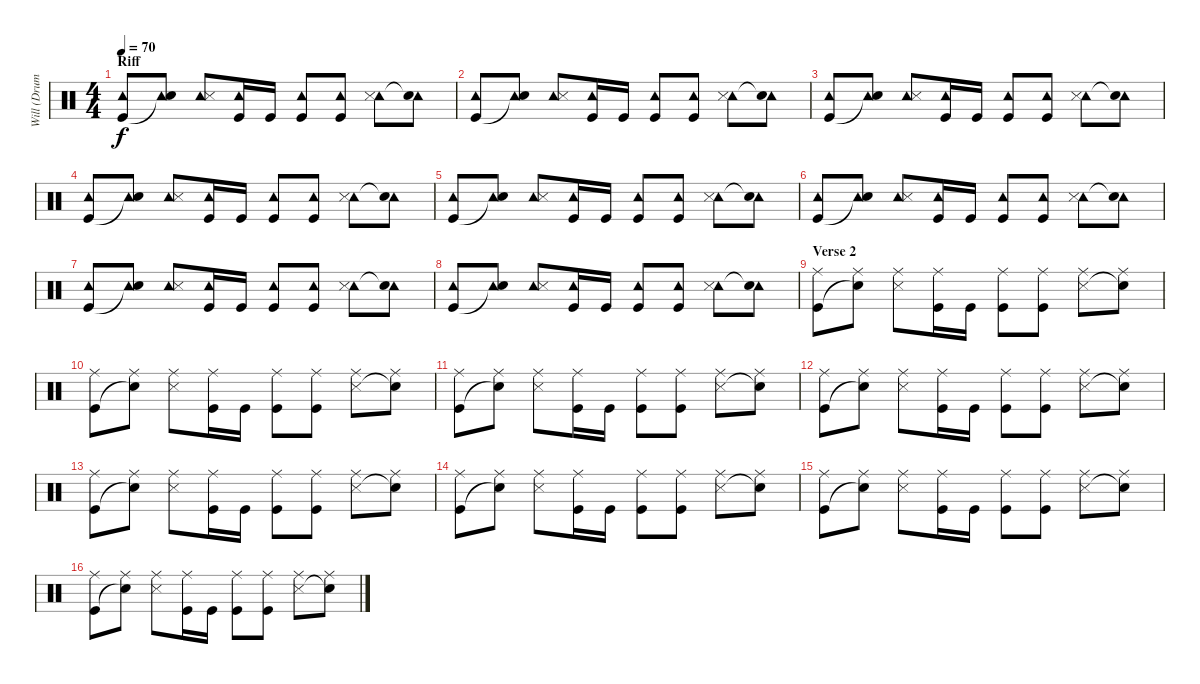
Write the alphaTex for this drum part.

\track ("Will (Drums)" "Will (Drum") {instrument percussion}
\staff {score}
\articulation defaults
\ts (4 4)
\section ("" "Riff")
\tempo 70
\clef neutral
\ks c
("Tambourine (hit)" "Kick (hit)").8{dy f} ("Tambourine (hit)" "Snare (hit)"{t}).8 ("Tambourine (hit)" "Snare (side stick) 3").8 ("Tambourine (hit)" "Kick (hit)").16 "Kick (hit)".16 ("Tambourine (hit)" "Kick (hit)").8 ("Tambourine (hit)" "Kick (hit)").8 ("Tambourine (hit)" "Snare (side stick) 3").8 ("Tambourine (hit)" "Snare (hit)"{t}).8 |
("Tambourine (hit)" "Kick (hit)").8 ("Tambourine (hit)" "Snare (hit)"{t}).8 ("Tambourine (hit)" "Snare (side stick) 3").8 ("Tambourine (hit)" "Kick (hit)").16 "Kick (hit)".16 ("Tambourine (hit)" "Kick (hit)").8 ("Tambourine (hit)" "Kick (hit)").8 ("Tambourine (hit)" "Snare (side stick) 3").8 ("Tambourine (hit)" "Snare (hit)"{t}).8 |
("Tambourine (hit)" "Kick (hit)").8 ("Tambourine (hit)" "Snare (hit)"{t}).8 ("Tambourine (hit)" "Snare (side stick) 3").8 ("Tambourine (hit)" "Kick (hit)").16 "Kick (hit)".16 ("Tambourine (hit)" "Kick (hit)").8 ("Tambourine (hit)" "Kick (hit)").8 ("Tambourine (hit)" "Snare (side stick) 3").8 ("Tambourine (hit)" "Snare (hit)"{t}).8 |
("Tambourine (hit)" "Kick (hit)").8 ("Tambourine (hit)" "Snare (hit)"{t}).8 ("Tambourine (hit)" "Snare (side stick) 3").8 ("Tambourine (hit)" "Kick (hit)").16 "Kick (hit)".16 ("Tambourine (hit)" "Kick (hit)").8 ("Tambourine (hit)" "Kick (hit)").8 ("Tambourine (hit)" "Snare (side stick) 3").8 ("Tambourine (hit)" "Snare (hit)"{t}).8 |
("Tambourine (hit)" "Kick (hit)").8 ("Tambourine (hit)" "Snare (hit)"{t}).8 ("Tambourine (hit)" "Snare (side stick) 3").8 ("Tambourine (hit)" "Kick (hit)").16 "Kick (hit)".16 ("Tambourine (hit)" "Kick (hit)").8 ("Tambourine (hit)" "Kick (hit)").8 ("Tambourine (hit)" "Snare (side stick) 3").8 ("Tambourine (hit)" "Snare (hit)"{t}).8 |
("Tambourine (hit)" "Kick (hit)").8 ("Tambourine (hit)" "Snare (hit)"{t}).8 ("Tambourine (hit)" "Snare (side stick) 3").8 ("Tambourine (hit)" "Kick (hit)").16 "Kick (hit)".16 ("Tambourine (hit)" "Kick (hit)").8 ("Tambourine (hit)" "Kick (hit)").8 ("Tambourine (hit)" "Snare (side stick) 3").8 ("Tambourine (hit)" "Snare (hit)"{t}).8 |
("Tambourine (hit)" "Kick (hit)").8 ("Tambourine (hit)" "Snare (hit)"{t}).8 ("Tambourine (hit)" "Snare (side stick) 3").8 ("Tambourine (hit)" "Kick (hit)").16 "Kick (hit)".16 ("Tambourine (hit)" "Kick (hit)").8 ("Tambourine (hit)" "Kick (hit)").8 ("Tambourine (hit)" "Snare (side stick) 3").8 ("Tambourine (hit)" "Snare (hit)"{t}).8 |
("Tambourine (hit)" "Kick (hit)").8 ("Tambourine (hit)" "Snare (hit)"{t}).8 ("Tambourine (hit)" "Snare (side stick) 3").8 ("Tambourine (hit)" "Kick (hit)").16 "Kick (hit)".16 ("Tambourine (hit)" "Kick (hit)").8 ("Tambourine (hit)" "Kick (hit)").8 ("Tambourine (hit)" "Snare (side stick) 3").8 ("Tambourine (hit)" "Snare (hit)"{t}).8 |
\section ("" "Verse 2")
("Ride (middle)" "Kick (hit)").8 ("Ride (middle)" "Snare (hit)"{t}).8 ("Ride (middle)" "Snare (side stick) 3").8 ("Ride (middle)" "Kick (hit)").16 "Kick (hit)".16 ("Ride (middle)" "Kick (hit)").8 ("Ride (middle)" "Kick (hit)").8 ("Ride (middle)" "Snare (side stick) 3").8 ("Ride (middle)" "Snare (hit)"{t}).8 |
("Ride (middle)" "Kick (hit)").8 ("Ride (middle)" "Snare (hit)"{t}).8 ("Ride (middle)" "Snare (side stick) 3").8 ("Ride (middle)" "Kick (hit)").16 "Kick (hit)".16 ("Ride (middle)" "Kick (hit)").8 ("Ride (middle)" "Kick (hit)").8 ("Ride (middle)" "Snare (side stick) 3").8 ("Ride (middle)" "Snare (hit)"{t}).8 |
("Ride (middle)" "Kick (hit)").8 ("Ride (middle)" "Snare (hit)"{t}).8 ("Ride (middle)" "Snare (side stick) 3").8 ("Ride (middle)" "Kick (hit)").16 "Kick (hit)".16 ("Ride (middle)" "Kick (hit)").8 ("Ride (middle)" "Kick (hit)").8 ("Ride (middle)" "Snare (side stick) 3").8 ("Ride (middle)" "Snare (hit)"{t}).8 |
("Ride (middle)" "Kick (hit)").8 ("Ride (middle)" "Snare (hit)"{t}).8 ("Ride (middle)" "Snare (side stick) 3").8 ("Ride (middle)" "Kick (hit)").16 "Kick (hit)".16 ("Ride (middle)" "Kick (hit)").8 ("Ride (middle)" "Kick (hit)").8 ("Ride (middle)" "Snare (side stick) 3").8 ("Ride (middle)" "Snare (hit)"{t}).8 |
("Ride (middle)" "Kick (hit)").8 ("Ride (middle)" "Snare (hit)"{t}).8 ("Ride (middle)" "Snare (side stick) 3").8 ("Ride (middle)" "Kick (hit)").16 "Kick (hit)".16 ("Ride (middle)" "Kick (hit)").8 ("Ride (middle)" "Kick (hit)").8 ("Ride (middle)" "Snare (side stick) 3").8 ("Ride (middle)" "Snare (hit)"{t}).8 |
("Ride (middle)" "Kick (hit)").8 ("Ride (middle)" "Snare (hit)"{t}).8 ("Ride (middle)" "Snare (side stick) 3").8 ("Ride (middle)" "Kick (hit)").16 "Kick (hit)".16 ("Ride (middle)" "Kick (hit)").8 ("Ride (middle)" "Kick (hit)").8 ("Ride (middle)" "Snare (side stick) 3").8 ("Ride (middle)" "Snare (hit)"{t}).8 |
("Ride (middle)" "Kick (hit)").8 ("Ride (middle)" "Snare (hit)"{t}).8 ("Ride (middle)" "Snare (side stick) 3").8 ("Ride (middle)" "Kick (hit)").16 "Kick (hit)".16 ("Ride (middle)" "Kick (hit)").8 ("Ride (middle)" "Kick (hit)").8 ("Ride (middle)" "Snare (side stick) 3").8 ("Ride (middle)" "Snare (hit)"{t}).8 |
("Ride (middle)" "Kick (hit)").8 ("Ride (middle)" "Snare (hit)"{t}).8 ("Ride (middle)" "Snare (side stick) 3").8 ("Ride (middle)" "Kick (hit)").16 "Kick (hit)".16 ("Ride (middle)" "Kick (hit)").8 ("Ride (middle)" "Kick (hit)").8 ("Ride (middle)" "Snare (side stick) 3").8 ("Ride (middle)" "Snare (hit)"{t}).8
